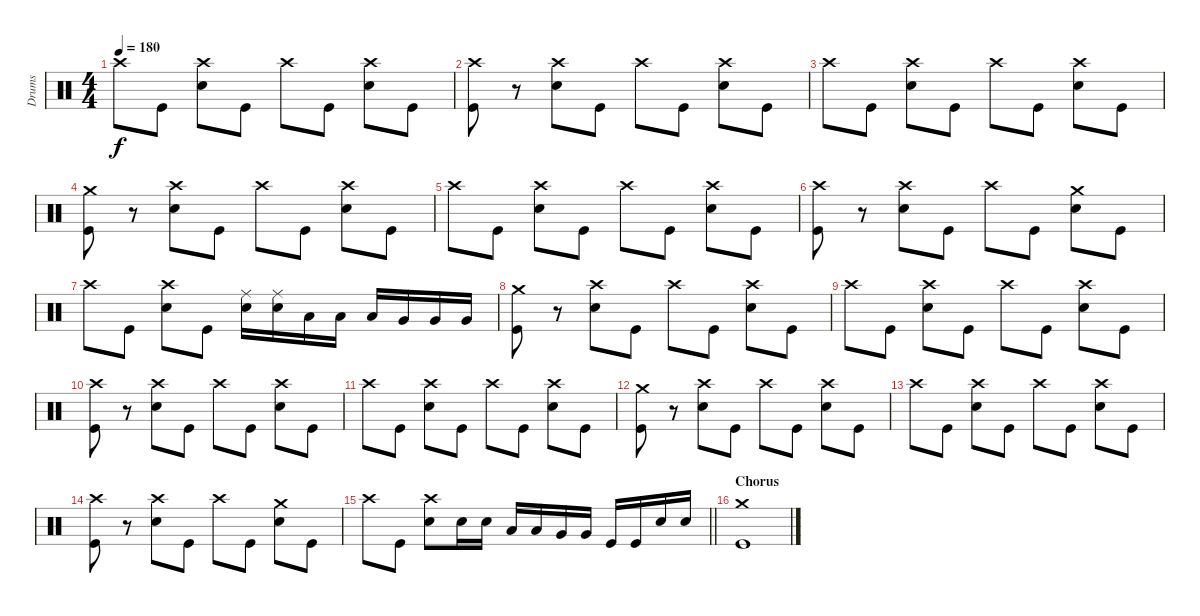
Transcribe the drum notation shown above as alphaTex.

\track ("Drums" "Drums") {instrument percussion}
\staff {score}
\articulation defaults
\ts (4 4)
\tempo 180
\clef neutral
\ks c "Crash high (hit)".8{dy f} "Kick (hit)".8
("Crash high (hit)" "Electric Snare (hit)").8 "Kick (hit)".8 "Crash high (hit)".8 "Kick (hit)".8 ("Crash high (hit)" "Electric Snare (hit)").8 "Kick (hit)".8 |
("Crash high (hit)" "Kick (hit)").8 r.8 ("Crash high (hit)" "Electric Snare (hit)").8 "Kick (hit)".8 "Crash high (hit)".8 "Kick (hit)".8 ("Crash high (hit)" "Electric Snare (hit)").8 "Kick (hit)".8 |
"Crash high (hit)".8 "Kick (hit)".8 ("Crash high (hit)" "Electric Snare (hit)").8 "Kick (hit)".8 "Crash high (hit)".8 "Kick (hit)".8 ("Crash high (hit)" "Electric Snare (hit)").8 "Kick (hit)".8 |
("Crash medium (hit)" "Kick (hit)").8 r.8 ("Crash high (hit)" "Electric Snare (hit)").8 "Kick (hit)".8 "Crash high (hit)".8 "Kick (hit)".8 ("Crash high (hit)" "Electric Snare (hit)").8 "Kick (hit)".8 |
"Crash high (hit)".8 "Kick (hit)".8 ("Crash high (hit)" "Electric Snare (hit)").8 "Kick (hit)".8 "Crash high (hit)".8 "Kick (hit)".8 ("Crash high (hit)" "Electric Snare (hit)").8 "Kick (hit)".8 |
("Crash high (hit)" "Kick (hit)").8 r.8 ("Crash high (hit)" "Electric Snare (hit)").8 "Kick (hit)".8 "Crash high (hit)".8 "Kick (hit)".8 ("Crash medium (hit)" "Electric Snare (hit)").8 "Kick (hit)".8 |
"Crash high (hit)".8 "Kick (hit)".8 ("Crash high (hit)" "Electric Snare (hit)").8 "Kick (hit)".8 ("Ride (middle)" "Electric Snare (hit)").16 ("Ride (middle)" "Electric Snare (hit)").16 "Low Tom (hit)".16 "Low Tom (hit)".16 "Low Tom (hit)".16 "Very Low Tom (hit)".16 "Very Low Tom (hit)".16 "Very Low Tom (hit)".16 |
("Crash medium (hit)" "Kick (hit)").8 r.8 ("Crash high (hit)" "Electric Snare (hit)").8 "Kick (hit)".8 "Crash high (hit)".8 "Kick (hit)".8 ("Crash high (hit)" "Electric Snare (hit)").8 "Kick (hit)".8 |
"Crash high (hit)".8 "Kick (hit)".8 ("Crash high (hit)" "Electric Snare (hit)").8 "Kick (hit)".8 "Crash high (hit)".8 "Kick (hit)".8 ("Crash high (hit)" "Electric Snare (hit)").8 "Kick (hit)".8 |
("Crash high (hit)" "Kick (hit)").8 r.8 ("Crash high (hit)" "Electric Snare (hit)").8 "Kick (hit)".8 "Crash high (hit)".8 "Kick (hit)".8 ("Crash high (hit)" "Electric Snare (hit)").8 "Kick (hit)".8 |
"Crash high (hit)".8 "Kick (hit)".8 ("Crash high (hit)" "Electric Snare (hit)").8 "Kick (hit)".8 "Crash high (hit)".8 "Kick (hit)".8 ("Crash high (hit)" "Electric Snare (hit)").8 "Kick (hit)".8 |
("Crash medium (hit)" "Kick (hit)").8 r.8 ("Crash high (hit)" "Electric Snare (hit)").8 "Kick (hit)".8 "Crash high (hit)".8 "Kick (hit)".8 ("Crash high (hit)" "Electric Snare (hit)").8 "Kick (hit)".8 |
"Crash high (hit)".8 "Kick (hit)".8 ("Crash high (hit)" "Electric Snare (hit)").8 "Kick (hit)".8 "Crash high (hit)".8 "Kick (hit)".8 ("Crash high (hit)" "Electric Snare (hit)").8 "Kick (hit)".8 |
("Crash high (hit)" "Kick (hit)").8 r.8 ("Crash high (hit)" "Electric Snare (hit)").8 "Kick (hit)".8 "Crash high (hit)".8 "Kick (hit)".8 ("Crash medium (hit)" "Electric Snare (hit)").8 "Kick (hit)".8 |
\barLineRight lightlight "Crash high (hit)".8 "Kick (hit)".8
("Crash high (hit)" "Electric Snare (hit)").8 "Electric Snare (hit)".16 "Electric Snare (hit)".16 "Low Tom (hit)".16 "Low Tom (hit)".16 "Very Low Tom (hit)".16 "Very Low Tom (hit)".16 "Kick (hit)".16 "Kick (hit)".16 "Electric Snare (hit)".16 "Electric Snare (hit)".16 |
\section ("" "Chorus")
("Crash medium (hit)" "Kick (hit)").1
